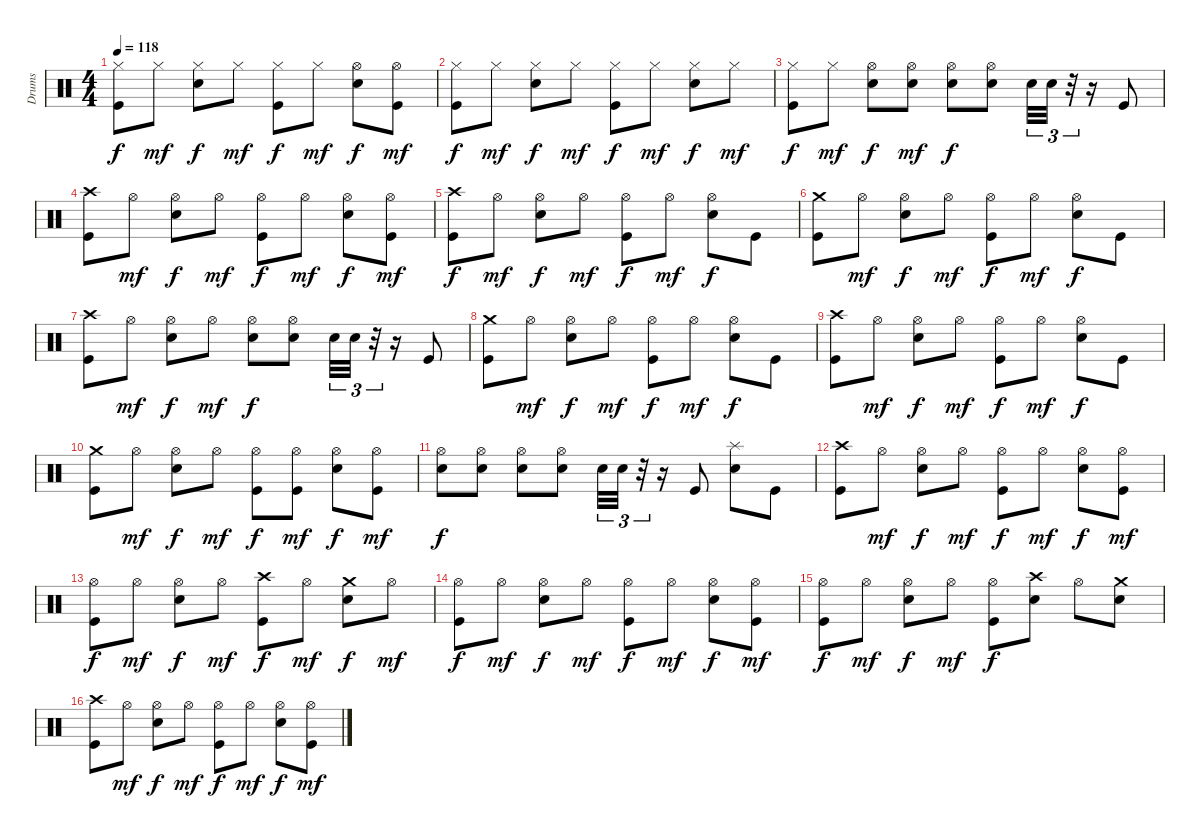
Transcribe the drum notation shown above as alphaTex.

\track ("Drums" "Drums") {instrument percussion}
\staff {score}
\articulation defaults
\ts (4 4)
\tempo 118
\clef neutral
\ks c
("Hi-Hat (closed)" "Kick (hit)").8{dy f} "Hi-Hat (closed)".8{dy mf} ("Hi-Hat (closed)" "Snare (hit) 2").8{dy f} "Hi-Hat (closed)".8{dy mf} ("Hi-Hat (closed)" "Kick (hit)").8{dy f} "Hi-Hat (closed)".8{dy mf} ("Hi-Hat (open)" "Snare (hit) 2").8{dy f} ("Hi-Hat (open)" "Kick (hit)").8{dy mf} |
("Hi-Hat (closed)" "Kick (hit)").8{dy f} "Hi-Hat (closed)".8{dy mf} ("Hi-Hat (closed)" "Snare (hit) 2").8{dy f} "Hi-Hat (closed)".8{dy mf} ("Hi-Hat (closed)" "Kick (hit)").8{dy f} "Hi-Hat (closed)".8{dy mf} ("Hi-Hat (closed)" "Snare (hit) 2").8{dy f} "Hi-Hat (closed)".8{dy mf} |
("Hi-Hat (closed)" "Kick (hit)").8{dy f} "Hi-Hat (closed)".8{dy mf} ("Hi-Hat (open)" "Snare (hit) 2").8{dy f} ("Hi-Hat (open)" "Snare (hit) 2").8{dy mf} ("Hi-Hat (open)" "Snare (hit) 2").8{dy f} ("Hi-Hat (open)" "Snare (hit) 2").8 "Snare (hit) 2".32{tu (3 2)} "Snare (hit) 2".32{tu (3 2)} r.32{tu (3 2)} r.16 "Kick (hit)".8 |
("Kick (hit)" "Crash high (hit)").8 "Hi-Hat (open)".8{dy mf} ("Hi-Hat (open)" "Snare (hit) 2").8{dy f} "Hi-Hat (open)".8{dy mf} ("Hi-Hat (open)" "Kick (hit)").8{dy f} "Hi-Hat (open)".8{dy mf} ("Hi-Hat (open)" "Snare (hit) 2").8{dy f} ("Hi-Hat (open)" "Kick (hit)").8{dy mf} |
("Kick (hit)" "Crash high (hit)").8{dy f} "Hi-Hat (open)".8{dy mf} ("Hi-Hat (open)" "Snare (hit) 2").8{dy f} "Hi-Hat (open)".8{dy mf} ("Hi-Hat (open)" "Kick (hit)").8{dy f} "Hi-Hat (open)".8{dy mf} ("Hi-Hat (open)" "Snare (hit) 2").8{dy f} "Kick (hit)".8 |
("Kick (hit)" "Crash medium (hit)").8 "Hi-Hat (open)".8{dy mf} ("Hi-Hat (open)" "Snare (hit) 2").8{dy f} "Hi-Hat (open)".8{dy mf} ("Hi-Hat (open)" "Kick (hit)").8{dy f} "Hi-Hat (open)".8{dy mf} ("Hi-Hat (open)" "Snare (hit) 2").8{dy f} "Kick (hit)".8 |
("Kick (hit)" "Crash high (hit)").8 "Hi-Hat (open)".8{dy mf} ("Hi-Hat (open)" "Snare (hit) 2").8{dy f} "Hi-Hat (open)".8{dy mf} ("Hi-Hat (open)" "Snare (hit) 2").8{dy f} ("Hi-Hat (open)" "Snare (hit) 2").8 "Snare (hit) 2".32{tu (3 2)} "Snare (hit) 2".32{tu (3 2)} r.32{tu (3 2)} r.16 "Kick (hit)".8 |
("Kick (hit)" "Crash medium (hit)").8 "Hi-Hat (open)".8{dy mf} ("Hi-Hat (open)" "Snare (hit) 2").8{dy f} "Hi-Hat (open)".8{dy mf} ("Hi-Hat (open)" "Kick (hit)").8{dy f} "Hi-Hat (open)".8{dy mf} ("Hi-Hat (open)" "Snare (hit) 2").8{dy f} "Kick (hit)".8 |
("Kick (hit)" "Crash high (hit)").8 "Hi-Hat (open)".8{dy mf} ("Hi-Hat (open)" "Snare (hit) 2").8{dy f} "Hi-Hat (open)".8{dy mf} ("Hi-Hat (open)" "Kick (hit)").8{dy f} "Hi-Hat (open)".8{dy mf} ("Hi-Hat (open)" "Snare (hit) 2").8{dy f} "Kick (hit)".8 |
("Kick (hit)" "Crash medium (hit)").8 "Hi-Hat (open)".8{dy mf} ("Hi-Hat (open)" "Snare (hit) 2").8{dy f} "Hi-Hat (open)".8{dy mf} ("Hi-Hat (open)" "Kick (hit)").8{dy f} ("Hi-Hat (open)" "Kick (hit)").8{dy mf} ("Hi-Hat (open)" "Snare (hit) 2").8{dy f} ("Hi-Hat (open)" "Kick (hit)").8{dy mf} |
("Hi-Hat (open)" "Snare (hit) 2").8{dy f} ("Hi-Hat (open)" "Snare (hit) 2").8 ("Hi-Hat (open)" "Snare (hit) 2").8 ("Hi-Hat (open)" "Snare (hit) 2").8 "Snare (hit) 2".32{tu (3 2)} "Snare (hit) 2".32{tu (3 2)} r.32{tu (3 2)} r.16 "Kick (hit)".8 ("Splash (hit)" "Snare (hit) 2").8 "Kick (hit)".8 |
("Kick (hit)" "Crash high (hit)").8 "Hi-Hat (open)".8{dy mf} ("Hi-Hat (open)" "Snare (hit) 2").8{dy f} "Hi-Hat (open)".8{dy mf} ("Hi-Hat (open)" "Kick (hit)").8{dy f} "Hi-Hat (open)".8{dy mf} ("Hi-Hat (open)" "Snare (hit) 2").8{dy f} ("Hi-Hat (open)" "Kick (hit)").8{dy mf} |
("Hi-Hat (open)" "Kick (hit)").8{dy f} "Hi-Hat (open)".8{dy mf} ("Hi-Hat (open)" "Snare (hit) 2").8{dy f} "Hi-Hat (open)".8{dy mf} ("Kick (hit)" "Crash high (hit)").8{dy f} "Hi-Hat (open)".8{dy mf} ("Snare (hit) 2" "Crash medium (hit)").8{dy f} "Hi-Hat (open)".8{dy mf} |
("Hi-Hat (open)" "Kick (hit)").8{dy f} "Hi-Hat (open)".8{dy mf} ("Hi-Hat (open)" "Snare (hit) 2").8{dy f} "Hi-Hat (open)".8{dy mf} ("Hi-Hat (open)" "Kick (hit)").8{dy f} "Hi-Hat (open)".8{dy mf} ("Hi-Hat (open)" "Snare (hit) 2").8{dy f} ("Hi-Hat (open)" "Kick (hit)").8{dy mf} |
("Hi-Hat (open)" "Kick (hit)").8{dy f} "Hi-Hat (open)".8{dy mf} ("Hi-Hat (open)" "Snare (hit) 2").8{dy f} "Hi-Hat (open)".8{dy mf} ("Hi-Hat (open)" "Kick (hit)").8{dy f} ("Snare (hit) 2" "Crash high (hit)").8 "Hi-Hat (open)".8 ("Snare (hit) 2" "Crash medium (hit)").8 |
("Kick (hit)" "Crash high (hit)").8 "Hi-Hat (open)".8{dy mf} ("Hi-Hat (open)" "Snare (hit) 2").8{dy f} "Hi-Hat (open)".8{dy mf} ("Hi-Hat (open)" "Kick (hit)").8{dy f} "Hi-Hat (open)".8{dy mf} ("Hi-Hat (open)" "Snare (hit) 2").8{dy f} ("Hi-Hat (open)" "Kick (hit)").8{dy mf}
